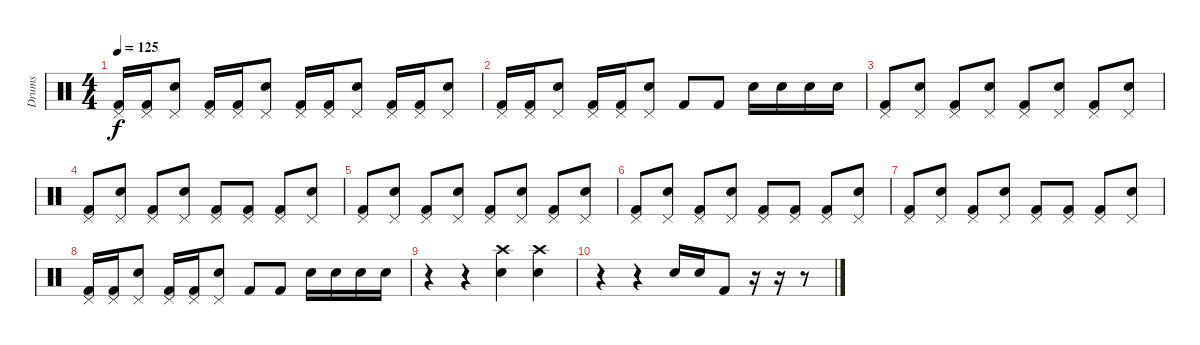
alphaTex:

\track ("Drums" "Drums") {instrument percussion}
\staff {score}
\articulation defaults
\ts (4 4)
\tempo 125
\clef neutral
\ks c
("Kick (hit) 2" "Pedal Hi-Hat (hit)").16{dy f} ("Kick (hit) 2" "Pedal Hi-Hat (hit)").16 ("Electric Snare (hit)" "Pedal Hi-Hat (hit)").8 ("Kick (hit) 2" "Pedal Hi-Hat (hit)").16 ("Kick (hit) 2" "Pedal Hi-Hat (hit)").16 ("Electric Snare (hit)" "Pedal Hi-Hat (hit)").8 ("Kick (hit) 2" "Pedal Hi-Hat (hit)").16 ("Kick (hit) 2" "Pedal Hi-Hat (hit)").16 ("Electric Snare (hit)" "Pedal Hi-Hat (hit)").8 ("Kick (hit) 2" "Pedal Hi-Hat (hit)").16 ("Kick (hit) 2" "Pedal Hi-Hat (hit)").16 ("Electric Snare (hit)" "Pedal Hi-Hat (hit)").8 |
("Kick (hit) 2" "Pedal Hi-Hat (hit)").16 ("Kick (hit) 2" "Pedal Hi-Hat (hit)").16 ("Electric Snare (hit)" "Pedal Hi-Hat (hit)").8 ("Kick (hit) 2" "Pedal Hi-Hat (hit)").16 ("Kick (hit) 2" "Pedal Hi-Hat (hit)").16 ("Electric Snare (hit)" "Pedal Hi-Hat (hit)").8 "Kick (hit) 2".8 "Kick (hit) 2".8 "Electric Snare (hit)".16 "Electric Snare (hit)".16 "Electric Snare (hit)".16 "Electric Snare (hit)".16 |
("Kick (hit) 2" "Pedal Hi-Hat (hit)").8 ("Electric Snare (hit)" "Pedal Hi-Hat (hit)").8 ("Kick (hit) 2" "Pedal Hi-Hat (hit)").8 ("Electric Snare (hit)" "Pedal Hi-Hat (hit)").8 ("Kick (hit) 2" "Pedal Hi-Hat (hit)").8 ("Electric Snare (hit)" "Pedal Hi-Hat (hit)").8 ("Kick (hit) 2" "Pedal Hi-Hat (hit)").8 ("Electric Snare (hit)" "Pedal Hi-Hat (hit)").8 |
("Kick (hit) 2" "Pedal Hi-Hat (hit)").8 ("Electric Snare (hit)" "Pedal Hi-Hat (hit)").8 ("Kick (hit) 2" "Pedal Hi-Hat (hit)").8 ("Electric Snare (hit)" "Pedal Hi-Hat (hit)").8 ("Kick (hit) 2" "Pedal Hi-Hat (hit)").8 ("Kick (hit) 2" "Pedal Hi-Hat (hit)").8 ("Kick (hit) 2" "Pedal Hi-Hat (hit)").8 ("Electric Snare (hit)" "Pedal Hi-Hat (hit)").8 |
("Kick (hit) 2" "Pedal Hi-Hat (hit)").8 ("Electric Snare (hit)" "Pedal Hi-Hat (hit)").8 ("Kick (hit) 2" "Pedal Hi-Hat (hit)").8 ("Electric Snare (hit)" "Pedal Hi-Hat (hit)").8 ("Kick (hit) 2" "Pedal Hi-Hat (hit)").8 ("Electric Snare (hit)" "Pedal Hi-Hat (hit)").8 ("Kick (hit) 2" "Pedal Hi-Hat (hit)").8 ("Electric Snare (hit)" "Pedal Hi-Hat (hit)").8 |
("Kick (hit) 2" "Pedal Hi-Hat (hit)").8 ("Electric Snare (hit)" "Pedal Hi-Hat (hit)").8 ("Kick (hit) 2" "Pedal Hi-Hat (hit)").8 ("Electric Snare (hit)" "Pedal Hi-Hat (hit)").8 ("Kick (hit) 2" "Pedal Hi-Hat (hit)").8 ("Kick (hit) 2" "Pedal Hi-Hat (hit)").8 ("Kick (hit) 2" "Pedal Hi-Hat (hit)").8 ("Electric Snare (hit)" "Pedal Hi-Hat (hit)").8 |
("Kick (hit) 2" "Pedal Hi-Hat (hit)").8 ("Electric Snare (hit)" "Pedal Hi-Hat (hit)").8 ("Kick (hit) 2" "Pedal Hi-Hat (hit)").8 ("Electric Snare (hit)" "Pedal Hi-Hat (hit)").8 ("Kick (hit) 2" "Pedal Hi-Hat (hit)").8 ("Kick (hit) 2" "Pedal Hi-Hat (hit)").8 ("Kick (hit) 2" "Pedal Hi-Hat (hit)").8 ("Electric Snare (hit)" "Pedal Hi-Hat (hit)").8 |
("Kick (hit) 2" "Pedal Hi-Hat (hit)").16 ("Kick (hit) 2" "Pedal Hi-Hat (hit)").16 ("Electric Snare (hit)" "Pedal Hi-Hat (hit)").8 ("Kick (hit) 2" "Pedal Hi-Hat (hit)").16 ("Kick (hit) 2" "Pedal Hi-Hat (hit)").16 ("Electric Snare (hit)" "Pedal Hi-Hat (hit)").8 "Kick (hit) 2".8 "Kick (hit) 2".8 "Electric Snare (hit)".16 "Electric Snare (hit)".16 "Electric Snare (hit)".16 "Electric Snare (hit)".16 |
r.4 r.4 ("Crash high (hit)" "Electric Snare (hit)").4 ("Crash high (hit)" "Electric Snare (hit)").4 |
r.4 r.4 "Electric Snare (hit)".16 "Electric Snare (hit)".16 "Kick (hit) 2".8 r.16 r.16 r.8
